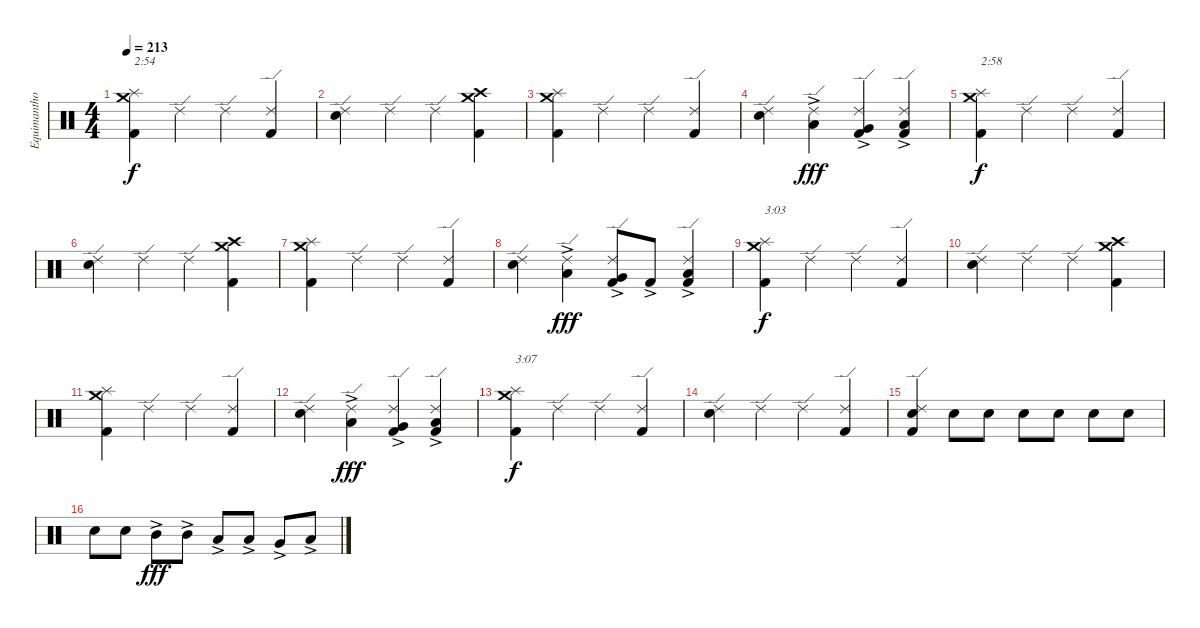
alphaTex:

\track ("Equimanthorn" "Equimantho") {instrument percussion}
\staff {score}
\articulation defaults
\ts (4 4)
\tempo 213
\clef neutral
\ks c
("Kick (hit) 2" "Splash (hit)" "Crash medium (hit)").4{txt "2:54" dy f} "Ride (edge) 2".4 "Ride (edge) 2".4 ("Kick (hit) 2" "Ride (edge) 2").4 |
("Electric Snare (hit)" "Ride (edge) 2").4 "Ride (edge) 2".4 "Ride (edge) 2".4 ("Kick (hit) 2" "Crash high (hit)" "Crash medium (hit)").4 |
("Kick (hit) 2" "Splash (hit)" "Crash medium (hit)").4 "Ride (edge) 2".4 "Ride (edge) 2".4 ("Kick (hit) 2" "Ride (edge) 2").4 |
("Electric Snare (hit)" "Ride (edge) 2").4 ("Low Tom (hit)"{ac} "Ride (edge) 2").4{dy fff} ("Kick (hit) 2" "Very Low Tom (hit)"{ac} "Ride (edge) 2").4 ("Kick (hit) 2" "Low Floor Tom (hit)"{ac} "Ride (edge) 2").4 |
("Kick (hit) 2" "Splash (hit)" "Crash medium (hit)").4{txt "2:58" dy f} "Ride (edge) 2".4 "Ride (edge) 2".4 ("Kick (hit) 2" "Ride (edge) 2").4 |
("Electric Snare (hit)" "Ride (edge) 2").4 "Ride (edge) 2".4 "Ride (edge) 2".4 ("Kick (hit) 2" "Crash high (hit)" "Crash medium (hit)").4 |
("Kick (hit) 2" "Splash (hit)" "Crash medium (hit)").4 "Ride (edge) 2".4 "Ride (edge) 2".4 ("Kick (hit) 2" "Ride (edge) 2").4 |
("Electric Snare (hit)" "Ride (edge) 2").4 ("Low Tom (hit)"{ac} "Ride (edge) 2").4{dy fff} ("Kick (hit) 2" "Very Low Tom (hit)"{ac} "Ride (edge) 2").8 "Kick (hit) 2"{ac}.8 ("Kick (hit) 2" "Low Floor Tom (hit)"{ac} "Ride (edge) 2").4 |
("Kick (hit) 2" "Splash (hit)" "Crash medium (hit)").4{txt "3:03" dy f} "Ride (edge) 2".4 "Ride (edge) 2".4 ("Kick (hit) 2" "Ride (edge) 2").4 |
("Electric Snare (hit)" "Ride (edge) 2").4 "Ride (edge) 2".4 "Ride (edge) 2".4 ("Kick (hit) 2" "Crash high (hit)" "Crash medium (hit)").4 |
("Kick (hit) 2" "Splash (hit)" "Crash medium (hit)").4 "Ride (edge) 2".4 "Ride (edge) 2".4 ("Kick (hit) 2" "Ride (edge) 2").4 |
("Electric Snare (hit)" "Ride (edge) 2").4 ("Low Tom (hit)"{ac} "Ride (edge) 2").4{dy fff} ("Kick (hit) 2" "Very Low Tom (hit)"{ac} "Ride (edge) 2").4 ("Kick (hit) 2" "Low Floor Tom (hit)"{ac} "Ride (edge) 2").4 |
("Kick (hit) 2" "Splash (hit)" "Crash medium (hit)").4{txt "3:07" dy f} "Ride (edge) 2".4 "Ride (edge) 2".4 ("Kick (hit) 2" "Ride (edge) 2").4 |
("Electric Snare (hit)" "Ride (edge) 2").4 "Ride (edge) 2".4 "Ride (edge) 2".4 ("Kick (hit) 2" "Ride (edge) 2").4 |
("Kick (hit) 2" "Electric Snare (hit)" "Ride (edge) 2").4 "Electric Snare (hit)".8 "Electric Snare (hit)".8 "Electric Snare (hit)".8 "Electric Snare (hit)".8 "Electric Snare (hit)".8 "Electric Snare (hit)".8 |
"Electric Snare (hit)".8 "Electric Snare (hit)".8 "Mid Tom (hit)"{ac}.8{dy fff} "Mid Tom (hit)"{ac}.8 "Low Tom (hit)"{ac}.8 "Low Tom (hit)"{ac}.8 "Very Low Tom (hit)"{ac}.8 "Low Floor Tom (hit)"{ac}.8
